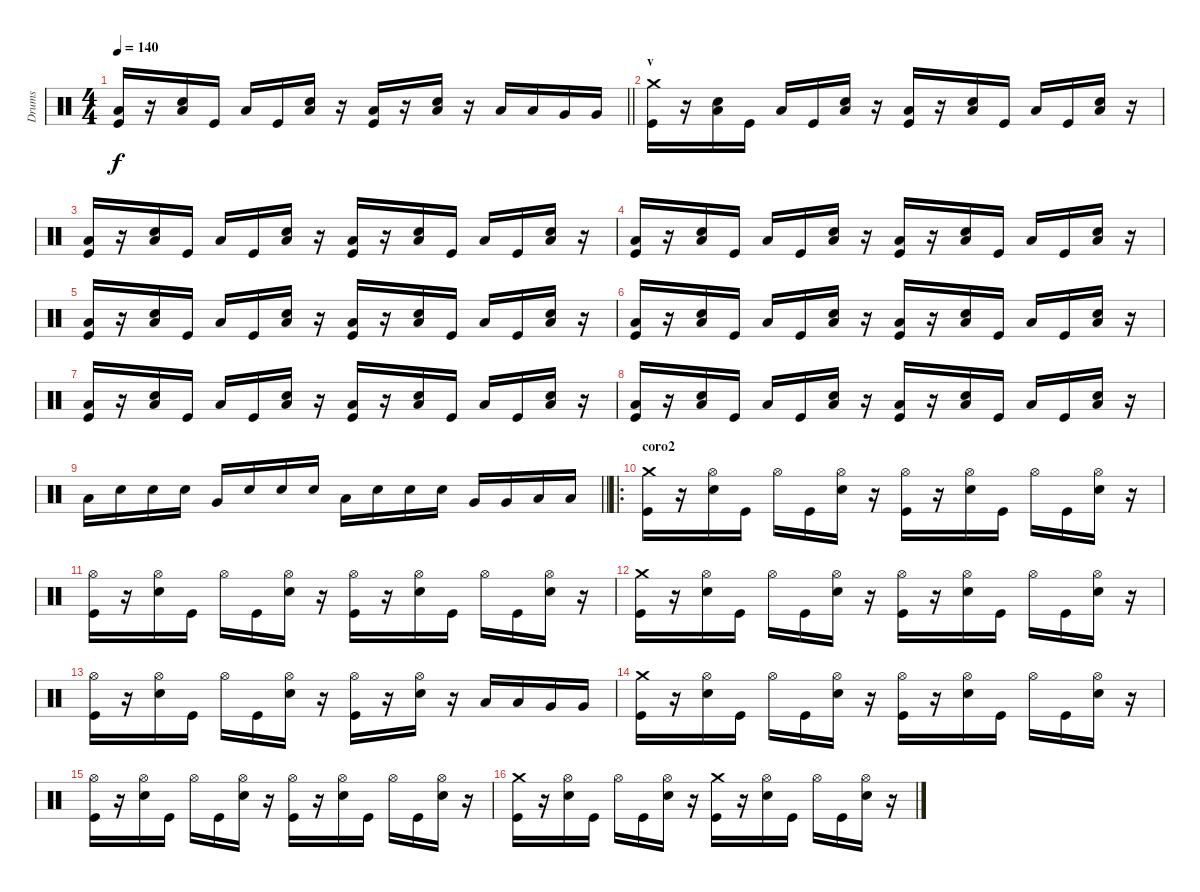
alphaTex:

\track ("Drums" "Drums") {instrument percussion}
\staff {score}
\articulation defaults
\ts (4 4)
\tempo 140
\clef neutral
\barLineRight lightlight
\ks c
("Low Floor Tom (hit)" "Kick (hit)").16{dy f} r.16 ("Low Floor Tom (hit)" "Snare (hit) 2").16 "Kick (hit)".16 "Low Floor Tom (hit)".16 "Kick (hit)".16 ("Low Floor Tom (hit)" "Snare (hit) 2").16 r.16 ("Low Floor Tom (hit)" "Kick (hit)").16 r.16 ("Low Floor Tom (hit)" "Snare (hit) 2").16 r.16 "Low Tom (hit)".16 "Low Tom (hit)".16 "Very Low Tom (hit)".16 "Very Low Tom (hit)".16 |
\section ("" "v")
("Crash medium (hit)" "Kick (hit)").16 r.16 ("Low Floor Tom (hit)" "Snare (hit) 2").16 "Kick (hit)".16 "Low Floor Tom (hit)".16 "Kick (hit)".16 ("Low Floor Tom (hit)" "Snare (hit) 2").16 r.16 ("Low Floor Tom (hit)" "Kick (hit)").16 r.16 ("Low Floor Tom (hit)" "Snare (hit) 2").16 "Kick (hit)".16 "Low Floor Tom (hit)".16 "Kick (hit)".16 ("Low Floor Tom (hit)" "Snare (hit) 2").16 r.16 |
("Low Floor Tom (hit)" "Kick (hit)").16 r.16 ("Low Floor Tom (hit)" "Snare (hit) 2").16 "Kick (hit)".16 "Low Floor Tom (hit)".16 "Kick (hit)".16 ("Low Floor Tom (hit)" "Snare (hit) 2").16 r.16 ("Low Floor Tom (hit)" "Kick (hit)").16 r.16 ("Low Floor Tom (hit)" "Snare (hit) 2").16 "Kick (hit)".16 "Low Floor Tom (hit)".16 "Kick (hit)".16 ("Low Floor Tom (hit)" "Snare (hit) 2").16 r.16 |
("Low Floor Tom (hit)" "Kick (hit)").16 r.16 ("Low Floor Tom (hit)" "Snare (hit) 2").16 "Kick (hit)".16 "Low Floor Tom (hit)".16 "Kick (hit)".16 ("Low Floor Tom (hit)" "Snare (hit) 2").16 r.16 ("Low Floor Tom (hit)" "Kick (hit)").16 r.16 ("Low Floor Tom (hit)" "Snare (hit) 2").16 "Kick (hit)".16 "Low Floor Tom (hit)".16 "Kick (hit)".16 ("Low Floor Tom (hit)" "Snare (hit) 2").16 r.16 |
("Low Floor Tom (hit)" "Kick (hit)").16 r.16 ("Low Floor Tom (hit)" "Snare (hit) 2").16 "Kick (hit)".16 "Low Floor Tom (hit)".16 "Kick (hit)".16 ("Low Floor Tom (hit)" "Snare (hit) 2").16 r.16 ("Low Floor Tom (hit)" "Kick (hit)").16 r.16 ("Low Floor Tom (hit)" "Snare (hit) 2").16 "Kick (hit)".16 "Low Floor Tom (hit)".16 "Kick (hit)".16 ("Low Floor Tom (hit)" "Snare (hit) 2").16 r.16 |
("Low Floor Tom (hit)" "Kick (hit)").16 r.16 ("Low Floor Tom (hit)" "Snare (hit) 2").16 "Kick (hit)".16 "Low Floor Tom (hit)".16 "Kick (hit)".16 ("Low Floor Tom (hit)" "Snare (hit) 2").16 r.16 ("Low Floor Tom (hit)" "Kick (hit)").16 r.16 ("Low Floor Tom (hit)" "Snare (hit) 2").16 "Kick (hit)".16 "Low Floor Tom (hit)".16 "Kick (hit)".16 ("Low Floor Tom (hit)" "Snare (hit) 2").16 r.16 |
("Low Floor Tom (hit)" "Kick (hit)").16 r.16 ("Low Floor Tom (hit)" "Snare (hit) 2").16 "Kick (hit)".16 "Low Floor Tom (hit)".16 "Kick (hit)".16 ("Low Floor Tom (hit)" "Snare (hit) 2").16 r.16 ("Low Floor Tom (hit)" "Kick (hit)").16 r.16 ("Low Floor Tom (hit)" "Snare (hit) 2").16 "Kick (hit)".16 "Low Floor Tom (hit)".16 "Kick (hit)".16 ("Low Floor Tom (hit)" "Snare (hit) 2").16 r.16 |
("Low Floor Tom (hit)" "Kick (hit)").16 r.16 ("Low Floor Tom (hit)" "Snare (hit) 2").16 "Kick (hit)".16 "Low Floor Tom (hit)".16 "Kick (hit)".16 ("Low Floor Tom (hit)" "Snare (hit) 2").16 r.16 ("Low Floor Tom (hit)" "Kick (hit)").16 r.16 ("Low Floor Tom (hit)" "Snare (hit) 2").16 "Kick (hit)".16 "Low Floor Tom (hit)".16 "Kick (hit)".16 ("Low Floor Tom (hit)" "Snare (hit) 2").16 r.16 |
\barLineRight lightlight "Low Tom (hit)".16 "Snare (hit) 2".16 "Snare (hit) 2".16 "Snare (hit) 2".16 "Very Low Tom (hit)".16 "Snare (hit) 2".16 "Snare (hit) 2".16 "Snare (hit) 2".16 "Low Floor Tom (hit)".16 "Snare (hit) 2".16 "Snare (hit) 2".16 "Snare (hit) 2".16 "Very Low Tom (hit)".16 "Very Low Tom (hit)".16 "Low Floor Tom (hit)".16 "Low Floor Tom (hit)".16
|
\ro
\section ("" "coro2")
("Crash medium (hit)" "Kick (hit)").16 r.16 ("Hi-Hat (open)" "Snare (hit) 2").16 "Kick (hit)".16 "Hi-Hat (open)".16 "Kick (hit)".16 ("Hi-Hat (open)" "Snare (hit) 2").16 r.16 ("Hi-Hat (open)" "Kick (hit)").16 r.16 ("Hi-Hat (open)" "Snare (hit) 2").16 "Kick (hit)".16 "Hi-Hat (open)".16 "Kick (hit)".16 ("Hi-Hat (open)" "Snare (hit) 2").16 r.16 |
("Hi-Hat (open)" "Kick (hit)").16 r.16 ("Hi-Hat (open)" "Snare (hit) 2").16 "Kick (hit)".16 "Hi-Hat (open)".16 "Kick (hit)".16 ("Hi-Hat (open)" "Snare (hit) 2").16 r.16 ("Hi-Hat (open)" "Kick (hit)").16 r.16 ("Hi-Hat (open)" "Snare (hit) 2").16 "Kick (hit)".16 "Hi-Hat (open)".16 "Kick (hit)".16 ("Hi-Hat (open)" "Snare (hit) 2").16 r.16 |
("Crash medium (hit)" "Kick (hit)").16 r.16 ("Hi-Hat (open)" "Snare (hit) 2").16 "Kick (hit)".16 "Hi-Hat (open)".16 "Kick (hit)".16 ("Hi-Hat (open)" "Snare (hit) 2").16 r.16 ("Hi-Hat (open)" "Kick (hit)").16 r.16 ("Hi-Hat (open)" "Snare (hit) 2").16 "Kick (hit)".16 "Hi-Hat (open)".16 "Kick (hit)".16 ("Hi-Hat (open)" "Snare (hit) 2").16 r.16 |
("Hi-Hat (open)" "Kick (hit)").16 r.16 ("Hi-Hat (open)" "Snare (hit) 2").16 "Kick (hit)".16 "Hi-Hat (open)".16 "Kick (hit)".16 ("Hi-Hat (open)" "Snare (hit) 2").16 r.16 ("Hi-Hat (open)" "Kick (hit)").16 r.16 ("Hi-Hat (open)" "Snare (hit) 2").16 r.16 "Low Tom (hit)".16 "Low Tom (hit)".16 "Very Low Tom (hit)".16 "Very Low Tom (hit)".16 |
("Crash medium (hit)" "Kick (hit)").16 r.16 ("Hi-Hat (open)" "Snare (hit) 2").16 "Kick (hit)".16 "Hi-Hat (open)".16 "Kick (hit)".16 ("Hi-Hat (open)" "Snare (hit) 2").16 r.16 ("Hi-Hat (open)" "Kick (hit)").16 r.16 ("Hi-Hat (open)" "Snare (hit) 2").16 "Kick (hit)".16 "Hi-Hat (open)".16 "Kick (hit)".16 ("Hi-Hat (open)" "Snare (hit) 2").16 r.16 |
("Hi-Hat (open)" "Kick (hit)").16 r.16 ("Hi-Hat (open)" "Snare (hit) 2").16 "Kick (hit)".16 "Hi-Hat (open)".16 "Kick (hit)".16 ("Hi-Hat (open)" "Snare (hit) 2").16 r.16 ("Hi-Hat (open)" "Kick (hit)").16 r.16 ("Hi-Hat (open)" "Snare (hit) 2").16 "Kick (hit)".16 "Hi-Hat (open)".16 "Kick (hit)".16 ("Hi-Hat (open)" "Snare (hit) 2").16 r.16 |
("Crash medium (hit)" "Kick (hit)").16 r.16 ("Hi-Hat (open)" "Snare (hit) 2").16 "Kick (hit)".16 "Hi-Hat (open)".16 "Kick (hit)".16 ("Hi-Hat (open)" "Snare (hit) 2").16 r.16 ("Crash medium (hit)" "Kick (hit)").16 r.16 ("Hi-Hat (open)" "Snare (hit) 2").16 "Kick (hit)".16 "Hi-Hat (open)".16 "Kick (hit)".16 ("Hi-Hat (open)" "Snare (hit) 2").16 r.16
